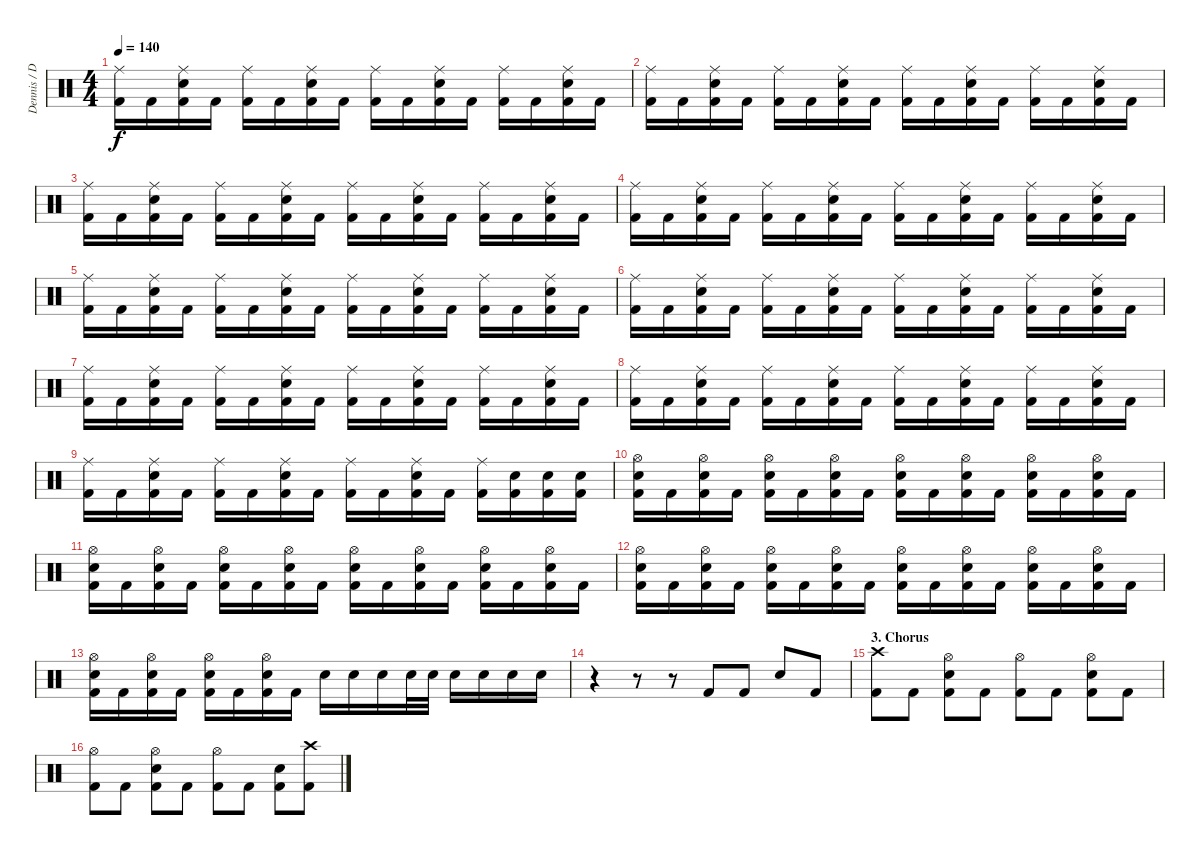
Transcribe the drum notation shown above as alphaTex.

\track ("Dennis / Drums" "Dennis / D") {instrument percussion}
\staff {score}
\articulation defaults
\ts (4 4)
\tempo 140
\clef neutral
\ks c
("Ride (middle)" "Kick (hit) 2").16{dy f} "Kick (hit) 2".16 ("Ride (middle)" "Electric Snare (hit)" "Kick (hit) 2").16 "Kick (hit) 2".16 ("Ride (middle)" "Kick (hit) 2").16 "Kick (hit) 2".16 ("Ride (middle)" "Electric Snare (hit)" "Kick (hit) 2").16 "Kick (hit) 2".16 ("Ride (middle)" "Kick (hit) 2").16 "Kick (hit) 2".16 ("Ride (middle)" "Electric Snare (hit)" "Kick (hit) 2").16 "Kick (hit) 2".16 ("Ride (middle)" "Kick (hit) 2").16 "Kick (hit) 2".16 ("Ride (middle)" "Electric Snare (hit)" "Kick (hit) 2").16 "Kick (hit) 2".16 |
("Ride (middle)" "Kick (hit) 2").16 "Kick (hit) 2".16 ("Ride (middle)" "Electric Snare (hit)" "Kick (hit) 2").16 "Kick (hit) 2".16 ("Ride (middle)" "Kick (hit) 2").16 "Kick (hit) 2".16 ("Ride (middle)" "Electric Snare (hit)" "Kick (hit) 2").16 "Kick (hit) 2".16 ("Ride (middle)" "Kick (hit) 2").16 "Kick (hit) 2".16 ("Ride (middle)" "Electric Snare (hit)" "Kick (hit) 2").16 "Kick (hit) 2".16 ("Ride (middle)" "Kick (hit) 2").16 "Kick (hit) 2".16 ("Ride (middle)" "Electric Snare (hit)" "Kick (hit) 2").16 "Kick (hit) 2".16 |
("Ride (middle)" "Kick (hit) 2").16 "Kick (hit) 2".16 ("Ride (middle)" "Electric Snare (hit)" "Kick (hit) 2").16 "Kick (hit) 2".16 ("Ride (middle)" "Kick (hit) 2").16 "Kick (hit) 2".16 ("Ride (middle)" "Electric Snare (hit)" "Kick (hit) 2").16 "Kick (hit) 2".16 ("Ride (middle)" "Kick (hit) 2").16 "Kick (hit) 2".16 ("Ride (middle)" "Electric Snare (hit)" "Kick (hit) 2").16 "Kick (hit) 2".16 ("Ride (middle)" "Kick (hit) 2").16 "Kick (hit) 2".16 ("Ride (middle)" "Electric Snare (hit)" "Kick (hit) 2").16 "Kick (hit) 2".16 |
("Ride (middle)" "Kick (hit) 2").16 "Kick (hit) 2".16 ("Ride (middle)" "Electric Snare (hit)" "Kick (hit) 2").16 "Kick (hit) 2".16 ("Ride (middle)" "Kick (hit) 2").16 "Kick (hit) 2".16 ("Ride (middle)" "Electric Snare (hit)" "Kick (hit) 2").16 "Kick (hit) 2".16 ("Ride (middle)" "Kick (hit) 2").16 "Kick (hit) 2".16 ("Ride (middle)" "Electric Snare (hit)" "Kick (hit) 2").16 "Kick (hit) 2".16 ("Ride (middle)" "Kick (hit) 2").16 "Kick (hit) 2".16 ("Ride (middle)" "Electric Snare (hit)" "Kick (hit) 2").16 "Kick (hit) 2".16 |
("Ride (middle)" "Kick (hit) 2").16 "Kick (hit) 2".16 ("Ride (middle)" "Electric Snare (hit)" "Kick (hit) 2").16 "Kick (hit) 2".16 ("Ride (middle)" "Kick (hit) 2").16 "Kick (hit) 2".16 ("Ride (middle)" "Electric Snare (hit)" "Kick (hit) 2").16 "Kick (hit) 2".16 ("Ride (middle)" "Kick (hit) 2").16 "Kick (hit) 2".16 ("Ride (middle)" "Electric Snare (hit)" "Kick (hit) 2").16 "Kick (hit) 2".16 ("Ride (middle)" "Kick (hit) 2").16 "Kick (hit) 2".16 ("Ride (middle)" "Electric Snare (hit)" "Kick (hit) 2").16 "Kick (hit) 2".16 |
("Ride (middle)" "Kick (hit) 2").16 "Kick (hit) 2".16 ("Ride (middle)" "Electric Snare (hit)" "Kick (hit) 2").16 "Kick (hit) 2".16 ("Ride (middle)" "Kick (hit) 2").16 "Kick (hit) 2".16 ("Ride (middle)" "Electric Snare (hit)" "Kick (hit) 2").16 "Kick (hit) 2".16 ("Ride (middle)" "Kick (hit) 2").16 "Kick (hit) 2".16 ("Ride (middle)" "Electric Snare (hit)" "Kick (hit) 2").16 "Kick (hit) 2".16 ("Ride (middle)" "Kick (hit) 2").16 "Kick (hit) 2".16 ("Ride (middle)" "Electric Snare (hit)" "Kick (hit) 2").16 "Kick (hit) 2".16 |
("Ride (middle)" "Kick (hit) 2").16 "Kick (hit) 2".16 ("Ride (middle)" "Electric Snare (hit)" "Kick (hit) 2").16 "Kick (hit) 2".16 ("Ride (middle)" "Kick (hit) 2").16 "Kick (hit) 2".16 ("Ride (middle)" "Electric Snare (hit)" "Kick (hit) 2").16 "Kick (hit) 2".16 ("Ride (middle)" "Kick (hit) 2").16 "Kick (hit) 2".16 ("Ride (middle)" "Electric Snare (hit)" "Kick (hit) 2").16 "Kick (hit) 2".16 ("Ride (middle)" "Kick (hit) 2").16 "Kick (hit) 2".16 ("Ride (middle)" "Electric Snare (hit)" "Kick (hit) 2").16 "Kick (hit) 2".16 |
("Ride (middle)" "Kick (hit) 2").16 "Kick (hit) 2".16 ("Ride (middle)" "Electric Snare (hit)" "Kick (hit) 2").16 "Kick (hit) 2".16 ("Ride (middle)" "Kick (hit) 2").16 "Kick (hit) 2".16 ("Ride (middle)" "Electric Snare (hit)" "Kick (hit) 2").16 "Kick (hit) 2".16 ("Ride (middle)" "Kick (hit) 2").16 "Kick (hit) 2".16 ("Ride (middle)" "Electric Snare (hit)" "Kick (hit) 2").16 "Kick (hit) 2".16 ("Ride (middle)" "Kick (hit) 2").16 "Kick (hit) 2".16 ("Ride (middle)" "Electric Snare (hit)" "Kick (hit) 2").16 "Kick (hit) 2".16 |
("Ride (middle)" "Kick (hit) 2").16 "Kick (hit) 2".16 ("Ride (middle)" "Electric Snare (hit)" "Kick (hit) 2").16 "Kick (hit) 2".16 ("Ride (middle)" "Kick (hit) 2").16 "Kick (hit) 2".16 ("Ride (middle)" "Electric Snare (hit)" "Kick (hit) 2").16 "Kick (hit) 2".16 ("Ride (middle)" "Kick (hit) 2").16 "Kick (hit) 2".16 ("Ride (middle)" "Electric Snare (hit)" "Kick (hit) 2").16 "Kick (hit) 2".16 ("Ride (middle)" "Kick (hit) 2").16 ("Electric Snare (hit)" "Kick (hit) 2").16 ("Electric Snare (hit)" "Kick (hit) 2").16 ("Electric Snare (hit)" "Kick (hit) 2").16 |
("Hi-Hat (open)" "Electric Snare (hit)" "Kick (hit) 2").16 "Kick (hit) 2".16 ("Hi-Hat (open)" "Electric Snare (hit)" "Kick (hit) 2").16 "Kick (hit) 2".16 ("Hi-Hat (open)" "Electric Snare (hit)" "Kick (hit) 2").16 "Kick (hit) 2".16 ("Hi-Hat (open)" "Electric Snare (hit)" "Kick (hit) 2").16 "Kick (hit) 2".16 ("Hi-Hat (open)" "Electric Snare (hit)" "Kick (hit) 2").16 "Kick (hit) 2".16 ("Hi-Hat (open)" "Electric Snare (hit)" "Kick (hit) 2").16 "Kick (hit) 2".16 ("Hi-Hat (open)" "Electric Snare (hit)" "Kick (hit) 2").16 "Kick (hit) 2".16 ("Hi-Hat (open)" "Electric Snare (hit)" "Kick (hit) 2").16 "Kick (hit) 2".16 |
("Hi-Hat (open)" "Electric Snare (hit)" "Kick (hit) 2").16 "Kick (hit) 2".16 ("Hi-Hat (open)" "Electric Snare (hit)" "Kick (hit) 2").16 "Kick (hit) 2".16 ("Hi-Hat (open)" "Electric Snare (hit)" "Kick (hit) 2").16 "Kick (hit) 2".16 ("Hi-Hat (open)" "Electric Snare (hit)" "Kick (hit) 2").16 "Kick (hit) 2".16 ("Hi-Hat (open)" "Electric Snare (hit)" "Kick (hit) 2").16 "Kick (hit) 2".16 ("Hi-Hat (open)" "Electric Snare (hit)" "Kick (hit) 2").16 "Kick (hit) 2".16 ("Hi-Hat (open)" "Electric Snare (hit)" "Kick (hit) 2").16 "Kick (hit) 2".16 ("Hi-Hat (open)" "Electric Snare (hit)" "Kick (hit) 2").16 "Kick (hit) 2".16 |
("Hi-Hat (open)" "Electric Snare (hit)" "Kick (hit) 2").16 "Kick (hit) 2".16 ("Hi-Hat (open)" "Electric Snare (hit)" "Kick (hit) 2").16 "Kick (hit) 2".16 ("Hi-Hat (open)" "Electric Snare (hit)" "Kick (hit) 2").16 "Kick (hit) 2".16 ("Hi-Hat (open)" "Electric Snare (hit)" "Kick (hit) 2").16 "Kick (hit) 2".16 ("Hi-Hat (open)" "Electric Snare (hit)" "Kick (hit) 2").16 "Kick (hit) 2".16 ("Hi-Hat (open)" "Electric Snare (hit)" "Kick (hit) 2").16 "Kick (hit) 2".16 ("Hi-Hat (open)" "Electric Snare (hit)" "Kick (hit) 2").16 "Kick (hit) 2".16 ("Hi-Hat (open)" "Electric Snare (hit)" "Kick (hit) 2").16 "Kick (hit) 2".16 |
("Hi-Hat (open)" "Electric Snare (hit)" "Kick (hit) 2").16 "Kick (hit) 2".16 ("Hi-Hat (open)" "Electric Snare (hit)" "Kick (hit) 2").16 "Kick (hit) 2".16 ("Hi-Hat (open)" "Electric Snare (hit)" "Kick (hit) 2").16 "Kick (hit) 2".16 ("Hi-Hat (open)" "Electric Snare (hit)" "Kick (hit) 2").16 "Kick (hit) 2".16 "Electric Snare (hit)".16 "Electric Snare (hit)".16 "Electric Snare (hit)".16 "Electric Snare (hit)".32 "Electric Snare (hit)".32 "Electric Snare (hit)".16 "Electric Snare (hit)".16 "Electric Snare (hit)".16 "Electric Snare (hit)".16 |
r.4 r.8 r.8 "Kick (hit) 2".8 "Kick (hit) 2".8 "Electric Snare (hit)".8 "Kick (hit) 2".8 |
\section ("" "3. Chorus")
("Crash high (hit)" "Kick (hit) 2").8 "Kick (hit) 2".8 ("Hi-Hat (open)" "Electric Snare (hit)" "Kick (hit) 2").8 "Kick (hit) 2".8 ("Hi-Hat (open)" "Kick (hit) 2").8 "Kick (hit) 2".8 ("Hi-Hat (open)" "Electric Snare (hit)" "Kick (hit) 2").8 "Kick (hit) 2".8 |
("Hi-Hat (open)" "Kick (hit) 2").8 "Kick (hit) 2".8 ("Hi-Hat (open)" "Electric Snare (hit)" "Kick (hit) 2").8 "Kick (hit) 2".8 ("Hi-Hat (open)" "Kick (hit) 2").8 "Kick (hit) 2".8 ("Electric Snare (hit)" "Kick (hit) 2").8 ("Crash high (hit)" "Kick (hit) 2").8
